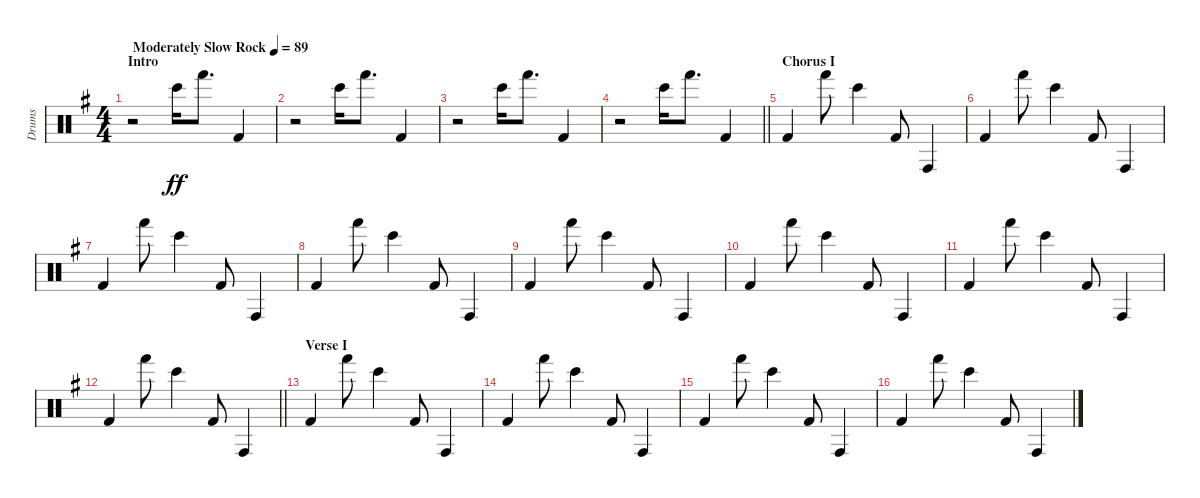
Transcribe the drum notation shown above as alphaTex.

\track ("Drums" "Drums") {instrument percussion}
\staff {score}
\articulation defaults
\ts (4 4)
\section ("" "Intro")
\tempo (89 "Moderately Slow Rock")
\clef neutral
\ks g
r.2{dy ff} "Bongo High (hit)".16 "Hand (hit)".8{d} "Kick (hit) 2".4 |
r.2 "Bongo High (hit)".16 "Hand (hit)".8{d} "Kick (hit) 2".4 |
r.2 "Bongo High (hit)".16 "Hand (hit)".8{d} "Kick (hit) 2".4 |
\barLineRight lightlight
r.2 "Bongo High (hit)".16 "Hand (hit)".8{d} "Kick (hit) 2".4 |
\section ("" "Chorus I")
"Kick (hit) 2".4 "Hand (hit)".8 "Bongo High (hit)".4 "Kick (hit) 2".8 "Conga high (hit)".4 |
"Kick (hit) 2".4 "Hand (hit)".8 "Bongo High (hit)".4 "Kick (hit) 2".8 "Conga high (hit)".4 |
"Kick (hit) 2".4 "Hand (hit)".8 "Bongo High (hit)".4 "Kick (hit) 2".8 "Conga high (hit)".4 |
"Kick (hit) 2".4 "Hand (hit)".8 "Bongo High (hit)".4 "Kick (hit) 2".8 "Conga high (hit)".4 |
"Kick (hit) 2".4 "Hand (hit)".8 "Bongo High (hit)".4 "Kick (hit) 2".8 "Conga high (hit)".4 |
"Kick (hit) 2".4 "Hand (hit)".8 "Bongo High (hit)".4 "Kick (hit) 2".8 "Conga high (hit)".4 |
"Kick (hit) 2".4 "Hand (hit)".8 "Bongo High (hit)".4 "Kick (hit) 2".8 "Conga high (hit)".4 |
\barLineRight lightlight "Kick (hit) 2".4 "Hand (hit)".8 "Bongo High (hit)".4 "Kick (hit) 2".8 "Conga high (hit)".4
|
\section ("" "Verse I")
"Kick (hit) 2".4 "Hand (hit)".8 "Bongo High (hit)".4 "Kick (hit) 2".8 "Conga high (hit)".4 |
"Kick (hit) 2".4 "Hand (hit)".8 "Bongo High (hit)".4 "Kick (hit) 2".8 "Conga high (hit)".4 |
"Kick (hit) 2".4 "Hand (hit)".8 "Bongo High (hit)".4 "Kick (hit) 2".8 "Conga high (hit)".4 |
"Kick (hit) 2".4 "Hand (hit)".8 "Bongo High (hit)".4 "Kick (hit) 2".8 "Conga high (hit)".4
